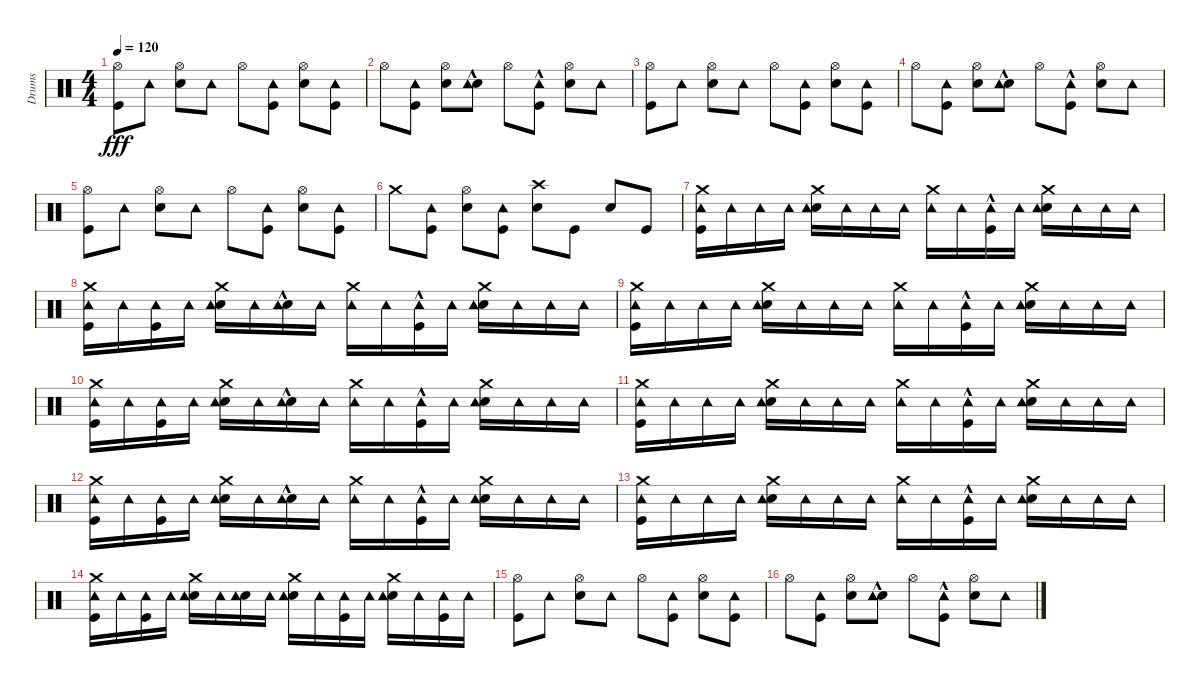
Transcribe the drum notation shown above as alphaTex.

\track ("Drums" "Drums") {instrument percussion}
\staff {score}
\articulation defaults
\ts (4 4)
\tempo 120
\clef neutral
\ks c
("Kick (hit)" "Hi-Hat (open)").8{dy fff} "Tambourine (hit)".8 ("Snare (hit) 2" "Hi-Hat (open)").8 "Tambourine (hit)".8 "Hi-Hat (open)".8 ("Kick (hit)" "Tambourine (hit)").8 ("Snare (hit) 2" "Hi-Hat (open)").8 ("Kick (hit)" "Tambourine (hit)").8 |
"Hi-Hat (open)".8 ("Kick (hit)" "Tambourine (hit)").8 ("Snare (hit) 2" "Hi-Hat (open)").8 ("Snare (hit) 2"{hac} "Tambourine (hit)").8 "Hi-Hat (open)".8 ("Kick (hit)"{hac} "Tambourine (hit)").8 ("Snare (hit) 2" "Hi-Hat (open)").8 "Tambourine (hit)".8 |
("Kick (hit)" "Hi-Hat (open)").8 "Tambourine (hit)".8 ("Snare (hit) 2" "Hi-Hat (open)").8 "Tambourine (hit)".8 "Hi-Hat (open)".8 ("Kick (hit)" "Tambourine (hit)").8 ("Snare (hit) 2" "Hi-Hat (open)").8 ("Kick (hit)" "Tambourine (hit)").8 |
"Hi-Hat (open)".8 ("Kick (hit)" "Tambourine (hit)").8 ("Snare (hit) 2" "Hi-Hat (open)").8 ("Snare (hit) 2"{hac} "Tambourine (hit)").8 "Hi-Hat (open)".8 ("Kick (hit)"{hac} "Tambourine (hit)").8 ("Snare (hit) 2" "Hi-Hat (open)").8 "Tambourine (hit)".8 |
("Kick (hit)" "Hi-Hat (open)").8 "Tambourine (hit)".8 ("Snare (hit) 2" "Hi-Hat (open)").8 "Tambourine (hit)".8 "Hi-Hat (open)".8 ("Kick (hit)" "Tambourine (hit)").8 ("Snare (hit) 2" "Hi-Hat (open)").8 ("Kick (hit)" "Tambourine (hit)").8 |
"Crash medium (hit)".8 ("Kick (hit)" "Tambourine (hit)").8 ("Snare (hit) 2" "Hi-Hat (open)").8 ("Kick (hit)" "Tambourine (hit)").8 ("Snare (hit) 2" "Crash high (hit)").8 "Kick (hit)".8 "Snare (hit) 2".8 "Kick (hit)".8 |
("Kick (hit)" "Tambourine (hit)" "Crash medium (hit)").16 "Tambourine (hit)".16 "Tambourine (hit)".16 "Tambourine (hit)".16 ("Snare (hit) 2" "Tambourine (hit)" "Crash medium (hit)").16 "Tambourine (hit)".16 "Tambourine (hit)".16 "Tambourine (hit)".16 ("Tambourine (hit)" "Crash medium (hit)").16 "Tambourine (hit)".16 ("Kick (hit)"{hac} "Tambourine (hit)").16 "Tambourine (hit)".16 ("Snare (hit) 2" "Tambourine (hit)" "Crash medium (hit)").16 "Tambourine (hit)".16 "Tambourine (hit)".16 "Tambourine (hit)".16 |
("Kick (hit)" "Tambourine (hit)" "Crash medium (hit)").16 "Tambourine (hit)".16 ("Kick (hit)" "Tambourine (hit)").16 "Tambourine (hit)".16 ("Snare (hit) 2" "Tambourine (hit)" "Crash medium (hit)").16 "Tambourine (hit)".16 ("Snare (hit) 2"{hac} "Tambourine (hit)").16 "Tambourine (hit)".16 ("Tambourine (hit)" "Crash medium (hit)").16 "Tambourine (hit)".16 ("Kick (hit)"{hac} "Tambourine (hit)").16 "Tambourine (hit)".16 ("Snare (hit) 2" "Tambourine (hit)" "Crash medium (hit)").16 "Tambourine (hit)".16 "Tambourine (hit)".16 "Tambourine (hit)".16 |
("Kick (hit)" "Tambourine (hit)" "Crash medium (hit)").16 "Tambourine (hit)".16 "Tambourine (hit)".16 "Tambourine (hit)".16 ("Snare (hit) 2" "Tambourine (hit)" "Crash medium (hit)").16 "Tambourine (hit)".16 "Tambourine (hit)".16 "Tambourine (hit)".16 ("Tambourine (hit)" "Crash medium (hit)").16 "Tambourine (hit)".16 ("Kick (hit)"{hac} "Tambourine (hit)").16 "Tambourine (hit)".16 ("Snare (hit) 2" "Tambourine (hit)" "Crash medium (hit)").16 "Tambourine (hit)".16 "Tambourine (hit)".16 "Tambourine (hit)".16 |
("Kick (hit)" "Tambourine (hit)" "Crash medium (hit)").16 "Tambourine (hit)".16 ("Kick (hit)" "Tambourine (hit)").16 "Tambourine (hit)".16 ("Snare (hit) 2" "Tambourine (hit)" "Crash medium (hit)").16 "Tambourine (hit)".16 ("Snare (hit) 2"{hac} "Tambourine (hit)").16 "Tambourine (hit)".16 ("Tambourine (hit)" "Crash medium (hit)").16 "Tambourine (hit)".16 ("Kick (hit)"{hac} "Tambourine (hit)").16 "Tambourine (hit)".16 ("Snare (hit) 2" "Tambourine (hit)" "Crash medium (hit)").16 "Tambourine (hit)".16 "Tambourine (hit)".16 "Tambourine (hit)".16 |
("Kick (hit)" "Tambourine (hit)" "Crash medium (hit)").16 "Tambourine (hit)".16 "Tambourine (hit)".16 "Tambourine (hit)".16 ("Snare (hit) 2" "Tambourine (hit)" "Crash medium (hit)").16 "Tambourine (hit)".16 "Tambourine (hit)".16 "Tambourine (hit)".16 ("Tambourine (hit)" "Crash medium (hit)").16 "Tambourine (hit)".16 ("Kick (hit)"{hac} "Tambourine (hit)").16 "Tambourine (hit)".16 ("Snare (hit) 2" "Tambourine (hit)" "Crash medium (hit)").16 "Tambourine (hit)".16 "Tambourine (hit)".16 "Tambourine (hit)".16 |
("Kick (hit)" "Tambourine (hit)" "Crash medium (hit)").16 "Tambourine (hit)".16 ("Kick (hit)" "Tambourine (hit)").16 "Tambourine (hit)".16 ("Snare (hit) 2" "Tambourine (hit)" "Crash medium (hit)").16 "Tambourine (hit)".16 ("Snare (hit) 2"{hac} "Tambourine (hit)").16 "Tambourine (hit)".16 ("Tambourine (hit)" "Crash medium (hit)").16 "Tambourine (hit)".16 ("Kick (hit)"{hac} "Tambourine (hit)").16 "Tambourine (hit)".16 ("Snare (hit) 2" "Tambourine (hit)" "Crash medium (hit)").16 "Tambourine (hit)".16 "Tambourine (hit)".16 "Tambourine (hit)".16 |
("Kick (hit)" "Tambourine (hit)" "Crash medium (hit)").16 "Tambourine (hit)".16 "Tambourine (hit)".16 "Tambourine (hit)".16 ("Snare (hit) 2" "Tambourine (hit)" "Crash medium (hit)").16 "Tambourine (hit)".16 "Tambourine (hit)".16 "Tambourine (hit)".16 ("Tambourine (hit)" "Crash medium (hit)").16 "Tambourine (hit)".16 ("Kick (hit)"{hac} "Tambourine (hit)").16 "Tambourine (hit)".16 ("Snare (hit) 2" "Tambourine (hit)" "Crash medium (hit)").16 "Tambourine (hit)".16 "Tambourine (hit)".16 "Tambourine (hit)".16 |
("Kick (hit)" "Tambourine (hit)" "Crash medium (hit)").16 "Tambourine (hit)".16 ("Kick (hit)" "Tambourine (hit)").16 "Tambourine (hit)".16 ("Snare (hit) 2" "Tambourine (hit)" "Crash medium (hit)").16 "Tambourine (hit)".16 ("Snare (hit) 2" "Tambourine (hit)").16 "Tambourine (hit)".16 ("Snare (hit) 2" "Tambourine (hit)" "Crash medium (hit)").16 "Tambourine (hit)".16 ("Kick (hit)" "Tambourine (hit)").16 "Tambourine (hit)".16 ("Snare (hit) 2" "Tambourine (hit)" "Crash medium (hit)").16 "Tambourine (hit)".16 ("Kick (hit)" "Tambourine (hit)").16 "Tambourine (hit)".16 |
("Kick (hit)" "Hi-Hat (open)").8 "Tambourine (hit)".8 ("Snare (hit) 2" "Hi-Hat (open)").8 "Tambourine (hit)".8 "Hi-Hat (open)".8 ("Kick (hit)" "Tambourine (hit)").8 ("Snare (hit) 2" "Hi-Hat (open)").8 ("Kick (hit)" "Tambourine (hit)").8 |
"Hi-Hat (open)".8 ("Kick (hit)" "Tambourine (hit)").8 ("Snare (hit) 2" "Hi-Hat (open)").8 ("Snare (hit) 2"{hac} "Tambourine (hit)").8 "Hi-Hat (open)".8 ("Kick (hit)"{hac} "Tambourine (hit)").8 ("Snare (hit) 2" "Hi-Hat (open)").8 "Tambourine (hit)".8
